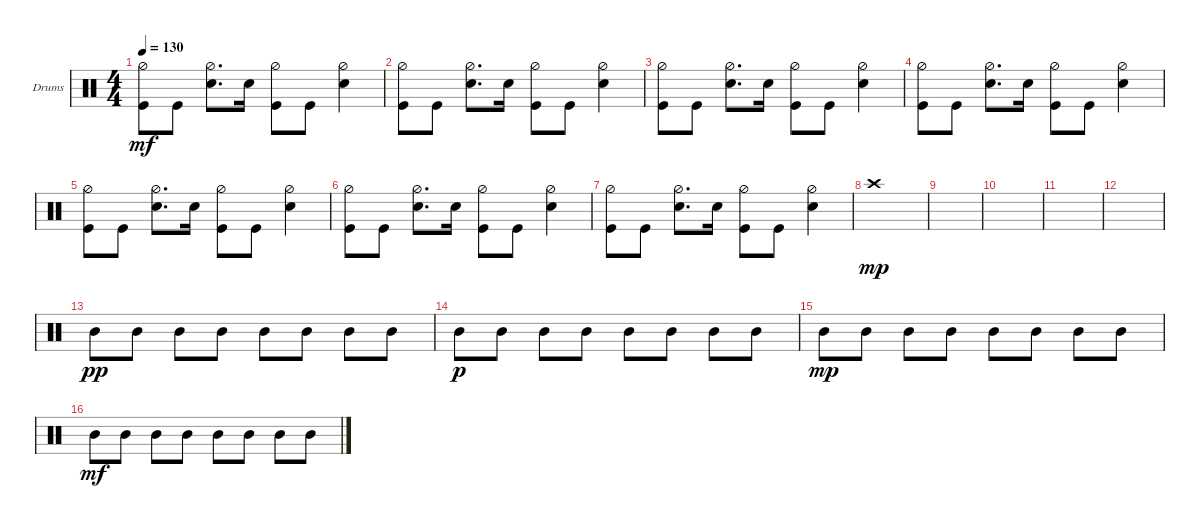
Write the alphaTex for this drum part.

\defaultSystemsLayout 4
\bracketExtendMode groupsimilarinstruments
\firstSystemTrackNameOrientation horizontal
\otherSystemsTrackNameOrientation horizontal
\track ("Drumkit" "Drums") {instrument percussion}
\staff {score}
\articulation defaults
\ts (4 4)
\tempo 130
\clef neutral
\ks c
("Kick (hit)" "Hi-Hat (half)").8{dy mf} "Kick (hit)".8 ("Hi-Hat (half)" "Snare (hit) 2").8{d} "Snare (hit) 2".16 ("Kick (hit)" "Hi-Hat (half)").8 "Kick (hit)".8 ("Snare (hit) 2" "Hi-Hat (half)").4 |
("Kick (hit)" "Hi-Hat (half)").8 "Kick (hit)".8 ("Hi-Hat (half)" "Snare (hit) 2").8{d} "Snare (hit) 2".16 ("Kick (hit)" "Hi-Hat (half)").8 "Kick (hit)".8 ("Snare (hit) 2" "Hi-Hat (half)").4 |
("Kick (hit)" "Hi-Hat (half)").8 "Kick (hit)".8 ("Hi-Hat (half)" "Snare (hit) 2").8{d} "Snare (hit) 2".16 ("Kick (hit)" "Hi-Hat (half)").8 "Kick (hit)".8 ("Snare (hit) 2" "Hi-Hat (half)").4 |
("Kick (hit)" "Hi-Hat (half)").8 "Kick (hit)".8 ("Hi-Hat (half)" "Snare (hit) 2").8{d} "Snare (hit) 2".16 ("Kick (hit)" "Hi-Hat (half)").8 "Kick (hit)".8 ("Snare (hit) 2" "Hi-Hat (half)").4 |
("Kick (hit)" "Hi-Hat (half)").8 "Kick (hit)".8 ("Hi-Hat (half)" "Snare (hit) 2").8{d} "Snare (hit) 2".16 ("Kick (hit)" "Hi-Hat (half)").8 "Kick (hit)".8 ("Snare (hit) 2" "Hi-Hat (half)").4 |
("Kick (hit)" "Hi-Hat (half)").8 "Kick (hit)".8 ("Hi-Hat (half)" "Snare (hit) 2").8{d} "Snare (hit) 2".16 ("Kick (hit)" "Hi-Hat (half)").8 "Kick (hit)".8 ("Snare (hit) 2" "Hi-Hat (half)").4 |
("Kick (hit)" "Hi-Hat (half)").8 "Kick (hit)".8 ("Hi-Hat (half)" "Snare (hit) 2").8{d} "Snare (hit) 2".16 ("Kick (hit)" "Hi-Hat (half)").8 "Kick (hit)".8 ("Snare (hit) 2" "Hi-Hat (half)").4 |
"Crash high (hit)".1{dy mp} |
|
|
|
|
"Mid Tom (hit)".8{dy pp} "Mid Tom (hit)".8 "Mid Tom (hit)".8 "Mid Tom (hit)".8 "Mid Tom (hit)".8 "Mid Tom (hit)".8 "Mid Tom (hit)".8 "Mid Tom (hit)".8 |
"Mid Tom (hit)".8{dy p} "Mid Tom (hit)".8 "Mid Tom (hit)".8 "Mid Tom (hit)".8 "Mid Tom (hit)".8 "Mid Tom (hit)".8 "Mid Tom (hit)".8 "Mid Tom (hit)".8 |
"Mid Tom (hit)".8{dy mp} "Mid Tom (hit)".8 "Mid Tom (hit)".8 "Mid Tom (hit)".8 "Mid Tom (hit)".8 "Mid Tom (hit)".8 "Mid Tom (hit)".8 "Mid Tom (hit)".8 |
"Mid Tom (hit)".8{dy mf} "Mid Tom (hit)".8 "Mid Tom (hit)".8 "Mid Tom (hit)".8 "Mid Tom (hit)".8 "Mid Tom (hit)".8 "Mid Tom (hit)".8 "Mid Tom (hit)".8
